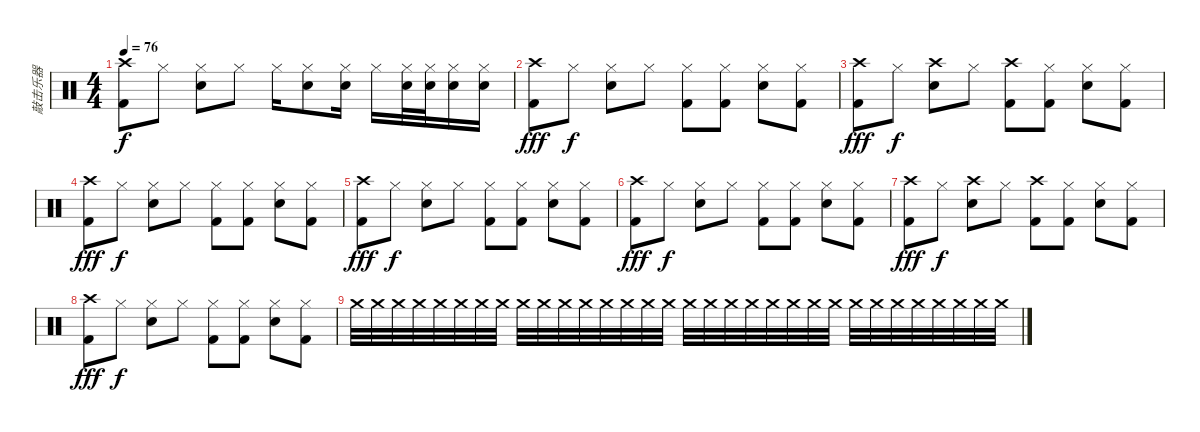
\track ("敲击乐器" "敲击乐器") {instrument percussion}
\staff {score}
\articulation defaults
\ts (4 4)
\tempo 76
\clef neutral
\ks c
("Crash high (hit)" "Kick (hit) 2").8{dy f} "Hi-Hat (closed)".8 ("Hi-Hat (closed)" "Electric Snare (hit)").8 "Hi-Hat (closed)".8 "Hi-Hat (closed)".16 ("Hi-Hat (closed)" "Electric Snare (hit)").8 ("Hi-Hat (closed)" "Electric Snare (hit)").16 "Hi-Hat (closed)".16 ("Hi-Hat (closed)" "Electric Snare (hit)").32 ("Hi-Hat (closed)" "Electric Snare (hit)").32 ("Hi-Hat (closed)" "Electric Snare (hit)").16 ("Hi-Hat (closed)" "Electric Snare (hit)").16 |
("Crash high (hit)" "Kick (hit) 2").8{dy fff} "Hi-Hat (closed)".8{dy f} ("Hi-Hat (closed)" "Electric Snare (hit)").8 "Hi-Hat (closed)".8 ("Hi-Hat (closed)" "Kick (hit) 2").8 ("Hi-Hat (closed)" "Kick (hit) 2").8 ("Hi-Hat (closed)" "Electric Snare (hit)").8 ("Hi-Hat (closed)" "Kick (hit) 2").8 |
("Crash high (hit)" "Kick (hit) 2").8{dy fff} "Hi-Hat (closed)".8{dy f} ("Crash high (hit)" "Electric Snare (hit)").8 "Hi-Hat (closed)".8 ("Crash high (hit)" "Kick (hit) 2").8 ("Hi-Hat (closed)" "Kick (hit) 2").8 ("Hi-Hat (closed)" "Electric Snare (hit)").8 ("Hi-Hat (closed)" "Kick (hit) 2").8 |
("Crash high (hit)" "Kick (hit) 2").8{dy fff} "Hi-Hat (closed)".8{dy f} ("Hi-Hat (closed)" "Electric Snare (hit)").8 "Hi-Hat (closed)".8 ("Hi-Hat (closed)" "Kick (hit) 2").8 ("Hi-Hat (closed)" "Kick (hit) 2").8 ("Hi-Hat (closed)" "Electric Snare (hit)").8 ("Hi-Hat (closed)" "Kick (hit) 2").8 |
("Crash high (hit)" "Kick (hit) 2").8{dy fff} "Hi-Hat (closed)".8{dy f} ("Hi-Hat (closed)" "Electric Snare (hit)").8 "Hi-Hat (closed)".8 ("Hi-Hat (closed)" "Kick (hit) 2").8 ("Hi-Hat (closed)" "Kick (hit) 2").8 ("Hi-Hat (closed)" "Electric Snare (hit)").8 ("Hi-Hat (closed)" "Kick (hit) 2").8 |
("Crash high (hit)" "Kick (hit) 2").8{dy fff} "Hi-Hat (closed)".8{dy f} ("Hi-Hat (closed)" "Electric Snare (hit)").8 "Hi-Hat (closed)".8 ("Hi-Hat (closed)" "Kick (hit) 2").8 ("Hi-Hat (closed)" "Kick (hit) 2").8 ("Hi-Hat (closed)" "Electric Snare (hit)").8 ("Hi-Hat (closed)" "Kick (hit) 2").8 |
("Crash high (hit)" "Kick (hit) 2").8{dy fff} "Hi-Hat (closed)".8{dy f} ("Crash high (hit)" "Electric Snare (hit)").8 "Hi-Hat (closed)".8 ("Crash high (hit)" "Kick (hit) 2").8 ("Hi-Hat (closed)" "Kick (hit) 2").8 ("Hi-Hat (closed)" "Electric Snare (hit)").8 ("Hi-Hat (closed)" "Kick (hit) 2").8 |
("Crash high (hit)" "Kick (hit) 2").8{dy fff} "Hi-Hat (closed)".8{dy f} ("Hi-Hat (closed)" "Electric Snare (hit)").8 "Hi-Hat (closed)".8 ("Hi-Hat (closed)" "Kick (hit) 2").8 ("Hi-Hat (closed)" "Kick (hit) 2").8 ("Hi-Hat (closed)" "Electric Snare (hit)").8 ("Hi-Hat (closed)" "Kick (hit) 2").8 |
"Crash medium (hit)".32{volume 12} "Crash medium (hit)".32 "Crash medium (hit)".32 "Crash medium (hit)".32 "Crash medium (hit)".32 "Crash medium (hit)".32 "Crash medium (hit)".32 "Crash medium (hit)".32 "Crash medium (hit)".32{volume 10} "Crash medium (hit)".32 "Crash medium (hit)".32 "Crash medium (hit)".32 "Crash medium (hit)".32 "Crash medium (hit)".32 "Crash medium (hit)".32 "Crash medium (hit)".32 "Crash medium (hit)".32 "Crash medium (hit)".32 "Crash medium (hit)".32 "Crash medium (hit)".32 "Crash medium (hit)".32 "Crash medium (hit)".32 "Crash medium (hit)".32 "Crash medium (hit)".32 "Crash medium (hit)".32 "Crash medium (hit)".32 "Crash medium (hit)".32 "Crash medium (hit)".32 "Crash medium (hit)".32 "Crash medium (hit)".32 "Crash medium (hit)".32 "Crash medium (hit)".32
